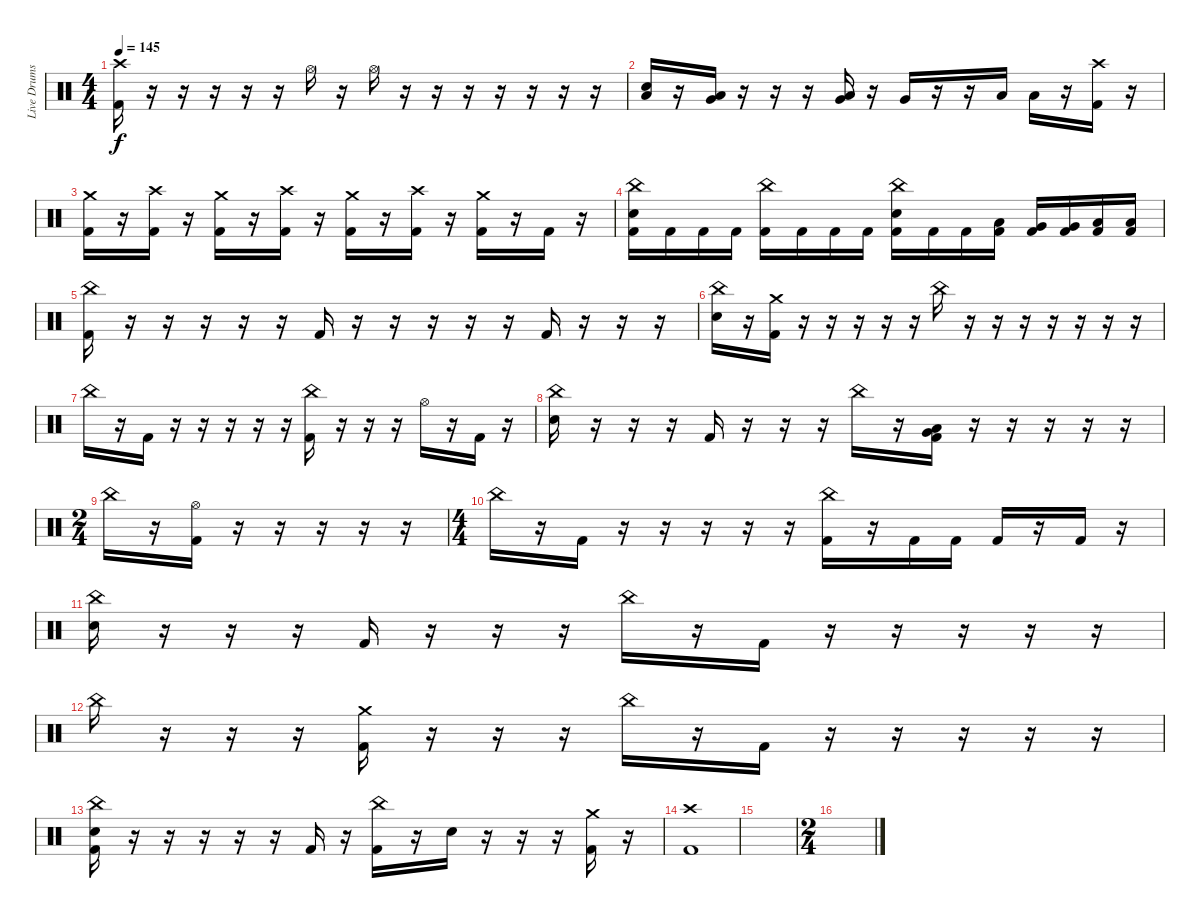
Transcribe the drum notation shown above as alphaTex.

\track ("Live Drums" "Live Drums") {instrument percussion}
\staff {score}
\articulation defaults
\ts (4 4)
\tempo 145
\clef neutral
\ks c
("Crash high (hit)" "Kick (hit) 2").16{dy f} r.16 r.16 r.16 r.16 r.16 "Hi-Hat (open)".16 r.16 "Hi-Hat (open)".16 r.16 r.16 r.16 r.16 r.16 r.16 r.16 |
("Low Tom (hit)" "Snare (hit) 2").16 r.16 ("Low Tom (hit)" "Very Low Tom (hit)").16 r.16 r.16 r.16 ("Low Floor Tom (hit)" "Very Low Tom (hit)").16 r.16 "Very Low Tom (hit)".16 r.16 r.16 "Low Floor Tom (hit)".16 "Low Floor Tom (hit)".16 r.16 ("Crash high (hit)" "Kick (hit) 2").16 r.16 |
("Crash medium (hit)" "Kick (hit) 2").16 r.16 ("Crash high (hit)" "Kick (hit) 2").16 r.16 ("Crash medium (hit)" "Kick (hit) 2").16 r.16 ("Crash high (hit)" "Kick (hit) 2").16 r.16 ("Crash medium (hit)" "Kick (hit) 2").16 r.16 ("Crash high (hit)" "Kick (hit) 2").16 r.16 ("Crash medium (hit)" "Kick (hit) 2").16 r.16 "Kick (hit) 2".16 r.16 |
("China (hit)" "Snare (hit) 2" "Kick (hit) 2").16 "Kick (hit) 2".16 "Kick (hit) 2".16 "Kick (hit) 2".16 ("China (hit)" "Kick (hit) 2").16 "Kick (hit) 2".16 "Kick (hit) 2".16 "Kick (hit) 2".16 ("China (hit)" "Snare (hit) 2" "Kick (hit) 2").16 "Kick (hit) 2".16 "Kick (hit) 2".16 ("Low Tom (hit)" "Kick (hit) 2").16 ("Very Low Tom (hit)" "Kick (hit) 2").16 ("Very Low Tom (hit)" "Kick (hit) 2").16 ("Low Floor Tom (hit)" "Kick (hit) 2").16 ("Low Floor Tom (hit)" "Kick (hit) 2").16 |
("China (hit)" "Kick (hit) 2").16 r.16 r.16 r.16 r.16 r.16 "Kick (hit) 2".16 r.16 r.16 r.16 r.16 r.16 "Kick (hit) 2".16 r.16 r.16 r.16 |
("China (hit)" "Snare (hit) 2").16 r.16 ("Crash medium (hit)" "Kick (hit) 2").16 r.16 r.16 r.16 r.16 r.16 "China (hit)".16 r.16 r.16 r.16 r.16 r.16 r.16 r.16 |
"China (hit)".16 r.16 "Kick (hit) 2".16 r.16 r.16 r.16 r.16 r.16 ("China (hit)" "Kick (hit) 2").16 r.16 r.16 r.16 "Hi-Hat (open)".16 r.16 "Kick (hit) 2".16 r.16 |
("China (hit)" "Snare (hit) 2").16 r.16 r.16 r.16 "Kick (hit) 2".16 r.16 r.16 r.16 "China (hit)".16 r.16 ("Low Tom (hit)" "Very Low Tom (hit)" "Kick (hit) 2").16 r.16 r.16 r.16 r.16 r.16 |
\ts (2 4)
"China (hit)".16 r.16 ("Hi-Hat (open)" "Kick (hit) 2").16 r.16 r.16 r.16 r.16 r.16 |
\ts (4 4)
"China (hit)".16 r.16 "Kick (hit) 2".16 r.16 r.16 r.16 r.16 r.16 ("China (hit)" "Kick (hit) 2").16 r.16 "Kick (hit) 2".16 "Kick (hit) 2".16 "Kick (hit) 2".16 r.16 "Kick (hit) 2".16 r.16 |
("China (hit)" "Snare (hit) 2").16 r.16 r.16 r.16 "Kick (hit) 2".16 r.16 r.16 r.16 "China (hit)".16 r.16 "Kick (hit) 2".16 r.16 r.16 r.16 r.16 r.16 |
"China (hit)".16 r.16 r.16 r.16 ("Crash medium (hit)" "Kick (hit) 2").16 r.16 r.16 r.16 "China (hit)".16 r.16 "Kick (hit) 2".16 r.16 r.16 r.16 r.16 r.16 |
("China (hit)" "Snare (hit) 2" "Kick (hit) 2").16 r.16 r.16 r.16 r.16 r.16 "Kick (hit) 2".16 r.16 ("China (hit)" "Kick (hit) 2").16 r.16 "Snare (hit) 2".16 r.16 r.16 r.16 ("Crash medium (hit)" "Kick (hit) 2").16 r.16 |
("Crash high (hit)" "Kick (hit) 2").1 |
|
\ts (2 4)
